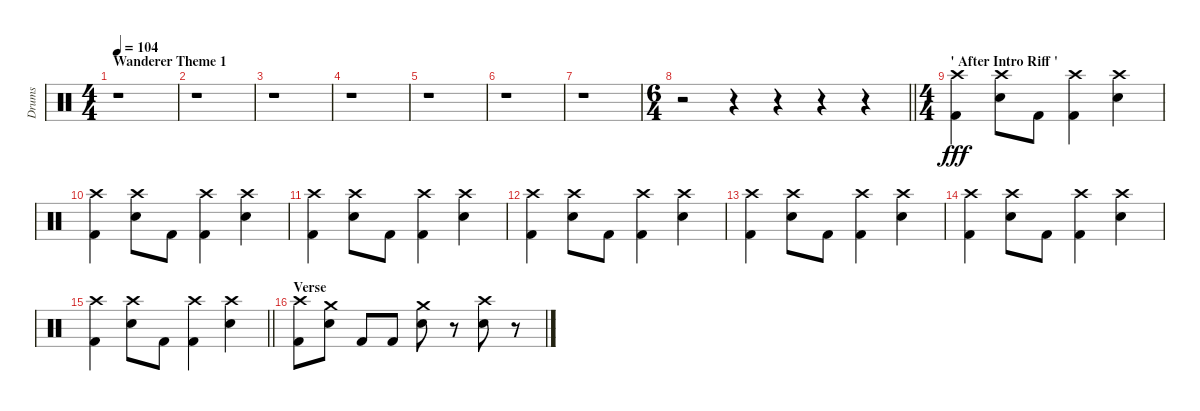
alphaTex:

\track ("Drums" "Drums") {instrument percussion}
\staff {score}
\articulation defaults
\ts (4 4)
\section ("" "Wanderer Theme 1")
\tempo 104
\clef neutral
\ks c
r.1{dy fff} |
r.1 |
r.1 |
r.1 |
r.1 |
r.1 |
r.1 |
\ts (6 4)
\barLineRight lightlight
r.2 r.4 r.4 r.4 r.4 |
\ts (4 4)
\section ("" "' After Intro Riff '")
("Crash high (hit)" "Kick (hit) 2").4 ("Crash high (hit)" "Snare (hit) 2").8 "Kick (hit) 2".8 ("Crash high (hit)" "Kick (hit) 2").4 ("Crash high (hit)" "Snare (hit) 2").4 |
("Crash high (hit)" "Kick (hit) 2").4 ("Crash high (hit)" "Snare (hit) 2").8 "Kick (hit) 2".8 ("Crash high (hit)" "Kick (hit) 2").4 ("Crash high (hit)" "Snare (hit) 2").4 |
("Crash high (hit)" "Kick (hit) 2").4 ("Crash high (hit)" "Snare (hit) 2").8 "Kick (hit) 2".8 ("Crash high (hit)" "Kick (hit) 2").4 ("Crash high (hit)" "Snare (hit) 2").4 |
("Crash high (hit)" "Kick (hit) 2").4 ("Crash high (hit)" "Snare (hit) 2").8 "Kick (hit) 2".8 ("Crash high (hit)" "Kick (hit) 2").4 ("Crash high (hit)" "Snare (hit) 2").4 |
("Crash high (hit)" "Kick (hit) 2").4 ("Crash high (hit)" "Snare (hit) 2").8 "Kick (hit) 2".8 ("Crash high (hit)" "Kick (hit) 2").4 ("Crash high (hit)" "Snare (hit) 2").4 |
("Crash high (hit)" "Kick (hit) 2").4 ("Crash high (hit)" "Snare (hit) 2").8 "Kick (hit) 2".8 ("Crash high (hit)" "Kick (hit) 2").4 ("Crash high (hit)" "Snare (hit) 2").4 |
\barLineRight lightlight
("Crash high (hit)" "Kick (hit) 2").4 ("Crash high (hit)" "Snare (hit) 2").8 "Kick (hit) 2".8 ("Crash high (hit)" "Kick (hit) 2").4 ("Crash high (hit)" "Snare (hit) 2").4 |
\section ("" "Verse")
("Crash high (hit)" "Kick (hit) 2").8 ("Crash medium (hit)" "Snare (hit) 2").8 "Kick (hit) 2".8 "Kick (hit) 2".8 ("Crash medium (hit)" "Snare (hit) 2").8 r.8 ("Crash high (hit)" "Snare (hit) 2").8 r.8
